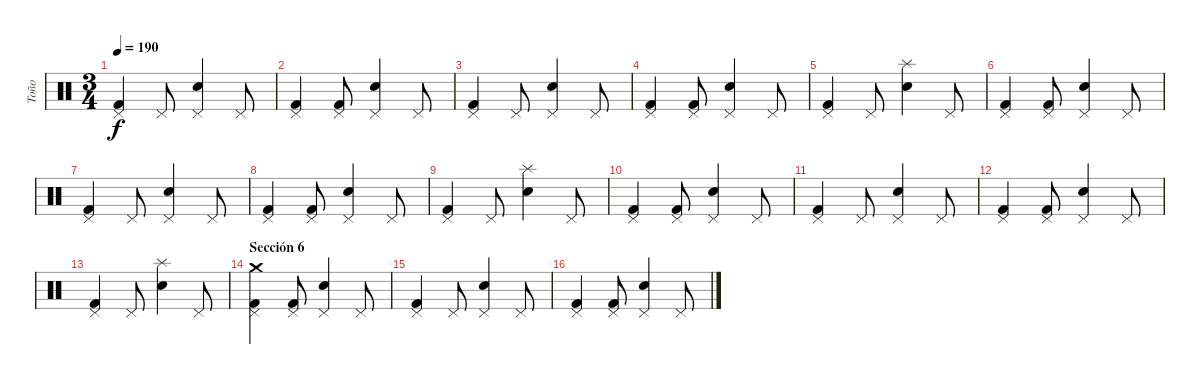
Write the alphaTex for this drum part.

\track ("Toño" "Toño") {instrument percussion}
\staff {score}
\articulation defaults
\ts (3 4)
\tempo 190
\clef neutral
\ks c
("Pedal Hi-Hat (hit)" "Kick (hit) 2").4{dy f} "Pedal Hi-Hat (hit)".8 ("Pedal Hi-Hat (hit)" "Electric Snare (hit)").4 "Pedal Hi-Hat (hit)".8 |
("Pedal Hi-Hat (hit)" "Kick (hit) 2").4 ("Pedal Hi-Hat (hit)" "Kick (hit) 2").8 ("Pedal Hi-Hat (hit)" "Electric Snare (hit)").4 "Pedal Hi-Hat (hit)".8 |
("Pedal Hi-Hat (hit)" "Kick (hit) 2").4 "Pedal Hi-Hat (hit)".8 ("Pedal Hi-Hat (hit)" "Electric Snare (hit)").4 "Pedal Hi-Hat (hit)".8 |
("Pedal Hi-Hat (hit)" "Kick (hit) 2").4 ("Pedal Hi-Hat (hit)" "Kick (hit) 2").8 ("Pedal Hi-Hat (hit)" "Electric Snare (hit)").4 "Pedal Hi-Hat (hit)".8 |
("Pedal Hi-Hat (hit)" "Kick (hit) 2").4 "Pedal Hi-Hat (hit)".8 ("Splash (hit)" "Electric Snare (hit)").4 "Pedal Hi-Hat (hit)".8 |
("Pedal Hi-Hat (hit)" "Kick (hit) 2").4 ("Pedal Hi-Hat (hit)" "Kick (hit) 2").8 ("Pedal Hi-Hat (hit)" "Electric Snare (hit)").4 "Pedal Hi-Hat (hit)".8 |
("Pedal Hi-Hat (hit)" "Kick (hit) 2").4 "Pedal Hi-Hat (hit)".8 ("Pedal Hi-Hat (hit)" "Electric Snare (hit)").4 "Pedal Hi-Hat (hit)".8 |
("Pedal Hi-Hat (hit)" "Kick (hit) 2").4 ("Pedal Hi-Hat (hit)" "Kick (hit) 2").8 ("Pedal Hi-Hat (hit)" "Electric Snare (hit)").4 "Pedal Hi-Hat (hit)".8 |
("Pedal Hi-Hat (hit)" "Kick (hit) 2").4 "Pedal Hi-Hat (hit)".8 ("Splash (hit)" "Electric Snare (hit)").4 "Pedal Hi-Hat (hit)".8 |
("Pedal Hi-Hat (hit)" "Kick (hit) 2").4 ("Pedal Hi-Hat (hit)" "Kick (hit) 2").8 ("Pedal Hi-Hat (hit)" "Electric Snare (hit)").4 "Pedal Hi-Hat (hit)".8 |
("Pedal Hi-Hat (hit)" "Kick (hit) 2").4 "Pedal Hi-Hat (hit)".8 ("Pedal Hi-Hat (hit)" "Electric Snare (hit)").4 "Pedal Hi-Hat (hit)".8 |
("Pedal Hi-Hat (hit)" "Kick (hit) 2").4 ("Pedal Hi-Hat (hit)" "Kick (hit) 2").8 ("Pedal Hi-Hat (hit)" "Electric Snare (hit)").4 "Pedal Hi-Hat (hit)".8 |
("Pedal Hi-Hat (hit)" "Kick (hit) 2").4 "Pedal Hi-Hat (hit)".8 ("Splash (hit)" "Electric Snare (hit)").4 "Pedal Hi-Hat (hit)".8 |
\section ("" "Sección 6")
("Pedal Hi-Hat (hit)" "Crash medium (hit)" "Kick (hit) 2").4 ("Pedal Hi-Hat (hit)" "Kick (hit) 2").8 ("Pedal Hi-Hat (hit)" "Electric Snare (hit)").4 "Pedal Hi-Hat (hit)".8 |
("Pedal Hi-Hat (hit)" "Kick (hit) 2").4 "Pedal Hi-Hat (hit)".8 ("Pedal Hi-Hat (hit)" "Electric Snare (hit)").4 "Pedal Hi-Hat (hit)".8 |
("Pedal Hi-Hat (hit)" "Kick (hit) 2").4 ("Pedal Hi-Hat (hit)" "Kick (hit) 2").8 ("Pedal Hi-Hat (hit)" "Electric Snare (hit)").4 "Pedal Hi-Hat (hit)".8
